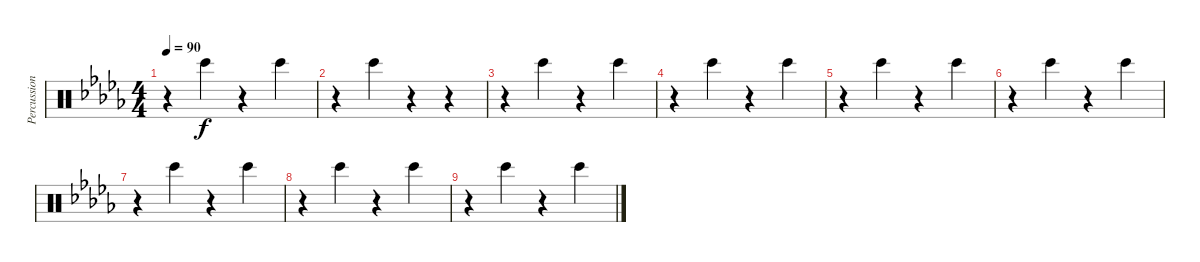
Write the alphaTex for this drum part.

\track ("Percussions" "Percussion") {instrument percussion}
\staff {score}
\articulation defaults
\ts (4 4)
\tempo 90
\clef neutral
\ks db
r.4{dy f} "Bongo High (hit)".4 r.4 "Bongo High (hit)".4 |
r.4 "Bongo High (hit)".4 r.4 r.4 |
r.4 "Bongo High (hit)".4 r.4 "Bongo High (hit)".4 |
r.4 "Bongo High (hit)".4 r.4 "Bongo High (hit)".4 |
r.4 "Bongo High (hit)".4 r.4 "Bongo High (hit)".4 |
r.4 "Bongo High (hit)".4 r.4 "Bongo High (hit)".4 |
r.4 "Bongo High (hit)".4 r.4 "Bongo High (hit)".4 |
r.4 "Bongo High (hit)".4 r.4 "Bongo High (hit)".4 |
r.4 "Bongo High (hit)".4 r.4 "Bongo High (hit)".4
